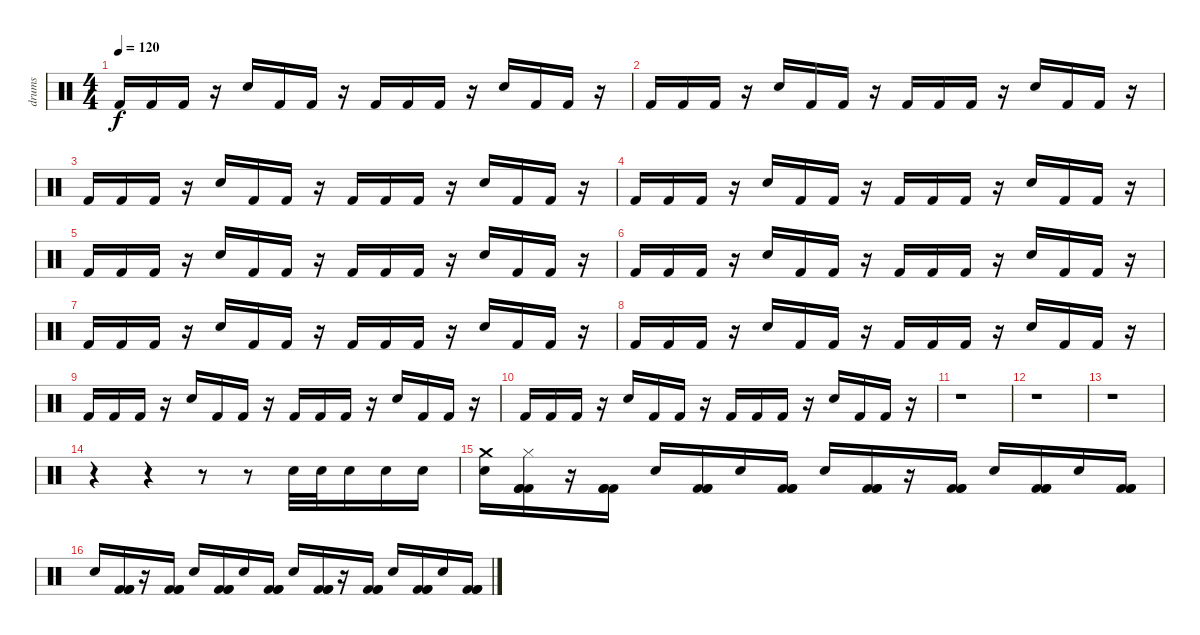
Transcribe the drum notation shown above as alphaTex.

\track ("drums" "drums") {instrument percussion}
\staff {score}
\articulation defaults
\ts (4 4)
\tempo 120
\clef neutral
\ks c "Kick (hit) 2".16{dy f} "Kick (hit) 2".16 "Kick (hit) 2".16
r.16 "Electric Snare (hit)".16 "Kick (hit) 2".16 "Kick (hit) 2".16 r.16 "Kick (hit) 2".16 "Kick (hit) 2".16 "Kick (hit) 2".16 r.16 "Electric Snare (hit)".16 "Kick (hit) 2".16 "Kick (hit) 2".16 r.16 |
"Kick (hit) 2".16 "Kick (hit) 2".16 "Kick (hit) 2".16 r.16 "Electric Snare (hit)".16 "Kick (hit) 2".16 "Kick (hit) 2".16 r.16 "Kick (hit) 2".16 "Kick (hit) 2".16 "Kick (hit) 2".16 r.16 "Electric Snare (hit)".16 "Kick (hit) 2".16 "Kick (hit) 2".16 r.16 |
"Kick (hit) 2".16 "Kick (hit) 2".16 "Kick (hit) 2".16 r.16 "Electric Snare (hit)".16 "Kick (hit) 2".16 "Kick (hit) 2".16 r.16 "Kick (hit) 2".16 "Kick (hit) 2".16 "Kick (hit) 2".16 r.16 "Electric Snare (hit)".16 "Kick (hit) 2".16 "Kick (hit) 2".16 r.16 |
"Kick (hit) 2".16 "Kick (hit) 2".16 "Kick (hit) 2".16 r.16 "Electric Snare (hit)".16 "Kick (hit) 2".16 "Kick (hit) 2".16 r.16 "Kick (hit) 2".16 "Kick (hit) 2".16 "Kick (hit) 2".16 r.16 "Electric Snare (hit)".16 "Kick (hit) 2".16 "Kick (hit) 2".16 r.16 |
"Kick (hit) 2".16 "Kick (hit) 2".16 "Kick (hit) 2".16 r.16 "Electric Snare (hit)".16 "Kick (hit) 2".16 "Kick (hit) 2".16 r.16 "Kick (hit) 2".16 "Kick (hit) 2".16 "Kick (hit) 2".16 r.16 "Electric Snare (hit)".16 "Kick (hit) 2".16 "Kick (hit) 2".16 r.16 |
"Kick (hit) 2".16 "Kick (hit) 2".16 "Kick (hit) 2".16 r.16 "Electric Snare (hit)".16 "Kick (hit) 2".16 "Kick (hit) 2".16 r.16 "Kick (hit) 2".16 "Kick (hit) 2".16 "Kick (hit) 2".16 r.16 "Electric Snare (hit)".16 "Kick (hit) 2".16 "Kick (hit) 2".16 r.16 |
"Kick (hit) 2".16 "Kick (hit) 2".16 "Kick (hit) 2".16 r.16 "Electric Snare (hit)".16 "Kick (hit) 2".16 "Kick (hit) 2".16 r.16 "Kick (hit) 2".16 "Kick (hit) 2".16 "Kick (hit) 2".16 r.16 "Electric Snare (hit)".16 "Kick (hit) 2".16 "Kick (hit) 2".16 r.16 |
"Kick (hit) 2".16 "Kick (hit) 2".16 "Kick (hit) 2".16 r.16 "Electric Snare (hit)".16 "Kick (hit) 2".16 "Kick (hit) 2".16 r.16 "Kick (hit) 2".16 "Kick (hit) 2".16 "Kick (hit) 2".16 r.16 "Electric Snare (hit)".16 "Kick (hit) 2".16 "Kick (hit) 2".16 r.16 |
"Kick (hit) 2".16 "Kick (hit) 2".16 "Kick (hit) 2".16 r.16 "Electric Snare (hit)".16 "Kick (hit) 2".16 "Kick (hit) 2".16 r.16 "Kick (hit) 2".16 "Kick (hit) 2".16 "Kick (hit) 2".16 r.16 "Electric Snare (hit)".16 "Kick (hit) 2".16 "Kick (hit) 2".16 r.16 |
"Kick (hit) 2".16 "Kick (hit) 2".16 "Kick (hit) 2".16 r.16 "Electric Snare (hit)".16 "Kick (hit) 2".16 "Kick (hit) 2".16 r.16 "Kick (hit) 2".16 "Kick (hit) 2".16 "Kick (hit) 2".16 r.16 "Electric Snare (hit)".16 "Kick (hit) 2".16 "Kick (hit) 2".16 r.16 |
r.1 |
r.1 |
r.1 |
r.4 r.4 r.8 r.8 "Electric Snare (hit)".32 "Electric Snare (hit)".32 "Electric Snare (hit)".16 "Electric Snare (hit)".16 "Electric Snare (hit)".16 |
("Crash medium (hit)" "Electric Snare (hit)").16 ("Hi-Hat (closed)" "Kick (hit) 2" "Kick (hit) 2" "Kick (hit) 2").16 r.16 ("Kick (hit) 2" "Kick (hit) 2" "Kick (hit) 2").16 "Electric Snare (hit)".16 ("Kick (hit) 2" "Kick (hit) 2" "Kick (hit) 2").16 "Electric Snare (hit)".16 ("Kick (hit) 2" "Kick (hit) 2" "Kick (hit) 2").16 "Electric Snare (hit)".16 ("Kick (hit) 2" "Kick (hit) 2" "Kick (hit) 2").16 r.16 ("Kick (hit) 2" "Kick (hit) 2" "Kick (hit) 2").16 "Electric Snare (hit)".16 ("Kick (hit) 2" "Kick (hit) 2" "Kick (hit) 2").16 "Electric Snare (hit)".16 ("Kick (hit) 2" "Kick (hit) 2" "Kick (hit) 2").16 |
"Electric Snare (hit)".16 ("Kick (hit) 2" "Kick (hit) 2" "Kick (hit) 2").16 r.16 ("Kick (hit) 2" "Kick (hit) 2" "Kick (hit) 2").16 "Electric Snare (hit)".16 ("Kick (hit) 2" "Kick (hit) 2" "Kick (hit) 2").16 "Electric Snare (hit)".16 ("Kick (hit) 2" "Kick (hit) 2" "Kick (hit) 2").16 "Electric Snare (hit)".16 ("Kick (hit) 2" "Kick (hit) 2" "Kick (hit) 2").16 r.16 ("Kick (hit) 2" "Kick (hit) 2" "Kick (hit) 2").16 "Electric Snare (hit)".16 ("Kick (hit) 2" "Kick (hit) 2" "Kick (hit) 2").16 "Electric Snare (hit)".16 ("Kick (hit) 2" "Kick (hit) 2" "Kick (hit) 2").16
